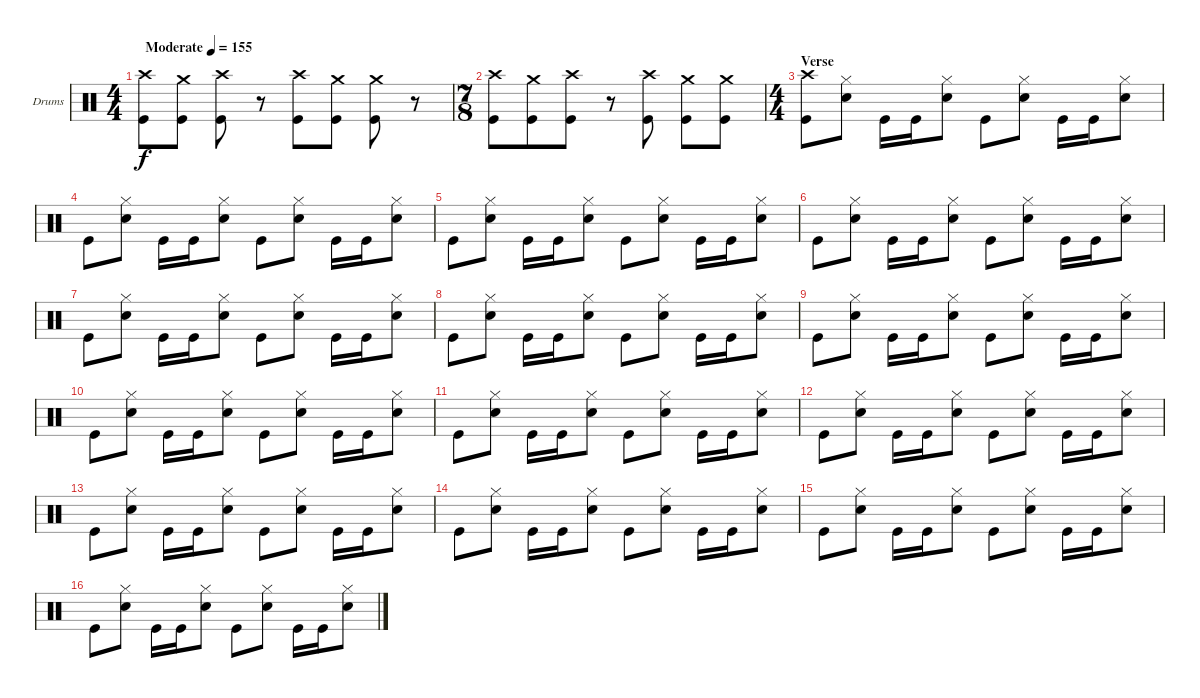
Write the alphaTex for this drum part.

\bracketExtendMode groupsimilarinstruments
\firstSystemTrackNameOrientation horizontal
\otherSystemsTrackNameOrientation horizontal
\track ("Drumkit" "Drums") {instrument percussion}
\staff {score}
\articulation defaults
\ts (4 4)
\beaming (8 2 2 2 2)
\tempo (155 "Moderate")
\clef neutral
\ks c
("Crash high (hit)" "Kick (hit)").8{dy f} ("Crash medium (hit)" "Kick (hit)").8 ("Crash high (hit)" "Kick (hit)").8 r.8 ("Crash high (hit)" "Kick (hit)").8 ("Crash medium (hit)" "Kick (hit)").8 ("Crash medium (hit)" "Kick (hit)").8 r.8 |
\ts (7 8)
\beaming (8 3 2 2)
("Crash high (hit)" "Kick (hit)").8 ("Crash medium (hit)" "Kick (hit)").8 ("Crash high (hit)" "Kick (hit)").8 r.8 ("Crash high (hit)" "Kick (hit)").8 ("Crash medium (hit)" "Kick (hit)").8 ("Crash medium (hit)" "Kick (hit)").8 |
\ts (4 4)
\beaming (8 2 2 2 2)
\section ("" "Verse")
("Crash high (hit)" "Kick (hit)").8 ("Hi-Hat (closed)" "Snare (hit) 2").8 "Kick (hit)".16 "Kick (hit)".16 ("Hi-Hat (closed)" "Snare (hit) 2").8 "Kick (hit)".8 ("Hi-Hat (closed)" "Snare (hit) 2").8 "Kick (hit)".16 "Kick (hit)".16 ("Hi-Hat (closed)" "Snare (hit) 2").8 |
"Kick (hit)".8 ("Hi-Hat (closed)" "Snare (hit) 2").8 "Kick (hit)".16 "Kick (hit)".16 ("Hi-Hat (closed)" "Snare (hit) 2").8 "Kick (hit)".8 ("Hi-Hat (closed)" "Snare (hit) 2").8 "Kick (hit)".16 "Kick (hit)".16 ("Hi-Hat (closed)" "Snare (hit) 2").8 |
"Kick (hit)".8 ("Hi-Hat (closed)" "Snare (hit) 2").8 "Kick (hit)".16 "Kick (hit)".16 ("Hi-Hat (closed)" "Snare (hit) 2").8 "Kick (hit)".8 ("Hi-Hat (closed)" "Snare (hit) 2").8 "Kick (hit)".16 "Kick (hit)".16 ("Hi-Hat (closed)" "Snare (hit) 2").8 |
"Kick (hit)".8 ("Hi-Hat (closed)" "Snare (hit) 2").8 "Kick (hit)".16 "Kick (hit)".16 ("Hi-Hat (closed)" "Snare (hit) 2").8 "Kick (hit)".8 ("Hi-Hat (closed)" "Snare (hit) 2").8 "Kick (hit)".16 "Kick (hit)".16 ("Hi-Hat (closed)" "Snare (hit) 2").8 |
"Kick (hit)".8 ("Hi-Hat (closed)" "Snare (hit) 2").8 "Kick (hit)".16 "Kick (hit)".16 ("Hi-Hat (closed)" "Snare (hit) 2").8 "Kick (hit)".8 ("Hi-Hat (closed)" "Snare (hit) 2").8 "Kick (hit)".16 "Kick (hit)".16 ("Hi-Hat (closed)" "Snare (hit) 2").8 |
"Kick (hit)".8 ("Hi-Hat (closed)" "Snare (hit) 2").8 "Kick (hit)".16 "Kick (hit)".16 ("Hi-Hat (closed)" "Snare (hit) 2").8 "Kick (hit)".8 ("Hi-Hat (closed)" "Snare (hit) 2").8 "Kick (hit)".16 "Kick (hit)".16 ("Hi-Hat (closed)" "Snare (hit) 2").8 |
"Kick (hit)".8 ("Hi-Hat (closed)" "Snare (hit) 2").8 "Kick (hit)".16 "Kick (hit)".16 ("Hi-Hat (closed)" "Snare (hit) 2").8 "Kick (hit)".8 ("Hi-Hat (closed)" "Snare (hit) 2").8 "Kick (hit)".16 "Kick (hit)".16 ("Hi-Hat (closed)" "Snare (hit) 2").8 |
"Kick (hit)".8 ("Hi-Hat (closed)" "Snare (hit) 2").8 "Kick (hit)".16 "Kick (hit)".16 ("Hi-Hat (closed)" "Snare (hit) 2").8 "Kick (hit)".8 ("Hi-Hat (closed)" "Snare (hit) 2").8 "Kick (hit)".16 "Kick (hit)".16 ("Hi-Hat (closed)" "Snare (hit) 2").8 |
"Kick (hit)".8 ("Hi-Hat (closed)" "Snare (hit) 2").8 "Kick (hit)".16 "Kick (hit)".16 ("Hi-Hat (closed)" "Snare (hit) 2").8 "Kick (hit)".8 ("Hi-Hat (closed)" "Snare (hit) 2").8 "Kick (hit)".16 "Kick (hit)".16 ("Hi-Hat (closed)" "Snare (hit) 2").8 |
"Kick (hit)".8 ("Hi-Hat (closed)" "Snare (hit) 2").8 "Kick (hit)".16 "Kick (hit)".16 ("Hi-Hat (closed)" "Snare (hit) 2").8 "Kick (hit)".8 ("Hi-Hat (closed)" "Snare (hit) 2").8 "Kick (hit)".16 "Kick (hit)".16 ("Hi-Hat (closed)" "Snare (hit) 2").8 |
"Kick (hit)".8 ("Hi-Hat (closed)" "Snare (hit) 2").8 "Kick (hit)".16 "Kick (hit)".16 ("Hi-Hat (closed)" "Snare (hit) 2").8 "Kick (hit)".8 ("Hi-Hat (closed)" "Snare (hit) 2").8 "Kick (hit)".16 "Kick (hit)".16 ("Hi-Hat (closed)" "Snare (hit) 2").8 |
"Kick (hit)".8 ("Hi-Hat (closed)" "Snare (hit) 2").8 "Kick (hit)".16 "Kick (hit)".16 ("Hi-Hat (closed)" "Snare (hit) 2").8 "Kick (hit)".8 ("Hi-Hat (closed)" "Snare (hit) 2").8 "Kick (hit)".16 "Kick (hit)".16 ("Hi-Hat (closed)" "Snare (hit) 2").8 |
"Kick (hit)".8 ("Hi-Hat (closed)" "Snare (hit) 2").8 "Kick (hit)".16 "Kick (hit)".16 ("Hi-Hat (closed)" "Snare (hit) 2").8 "Kick (hit)".8 ("Hi-Hat (closed)" "Snare (hit) 2").8 "Kick (hit)".16 "Kick (hit)".16 ("Hi-Hat (closed)" "Snare (hit) 2").8 |
"Kick (hit)".8 ("Hi-Hat (closed)" "Snare (hit) 2").8 "Kick (hit)".16 "Kick (hit)".16 ("Hi-Hat (closed)" "Snare (hit) 2").8 "Kick (hit)".8 ("Hi-Hat (closed)" "Snare (hit) 2").8 "Kick (hit)".16 "Kick (hit)".16 ("Hi-Hat (closed)" "Snare (hit) 2").8
